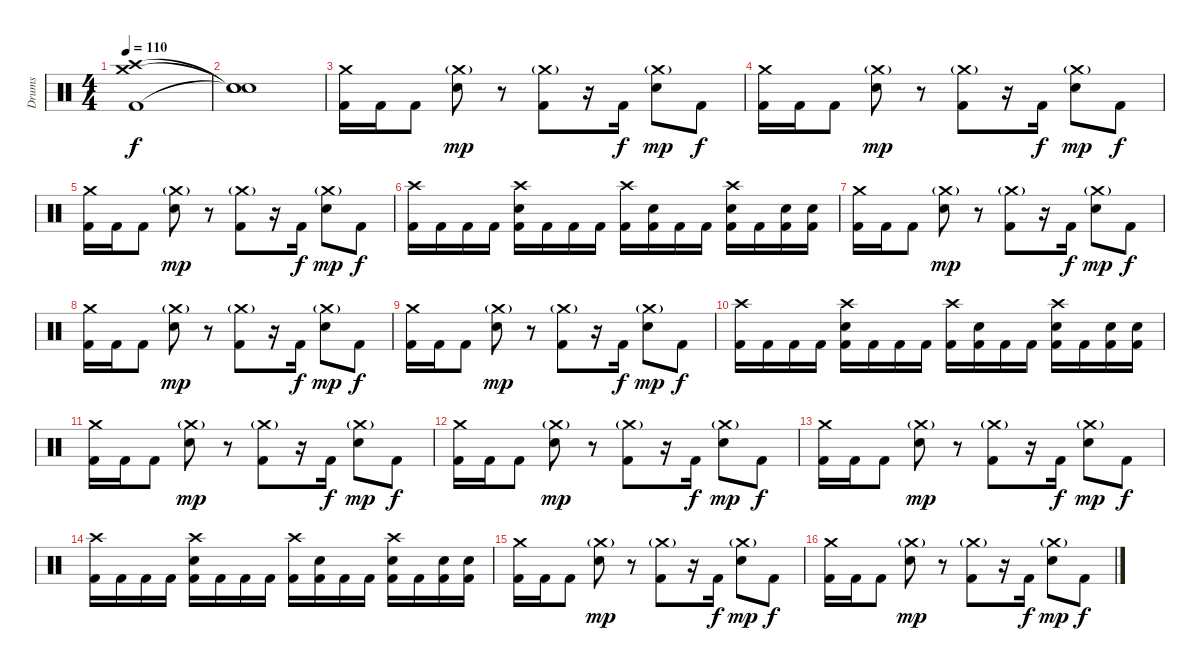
\track ("Drums" "Drums") {instrument percussion}
\staff {score}
\articulation defaults
\ts (4 4)
\tempo 110
\clef neutral
\ks c
("Crash high (hit)" "Crash medium (hit)" "Kick (hit) 2").1{dy f} |
("Snare (hit)"{t} "Snare (hit)"{t} "Snare (hit)"{t}).1 |
("Crash medium (hit)" "Kick (hit) 2").16 "Kick (hit) 2".16 "Kick (hit) 2".8 ("Crash medium (hit)"{g} "Electric Snare (hit)").8{dy mp} r.8 ("Crash medium (hit)"{g} "Kick (hit) 2").8 r.16 "Kick (hit) 2".16{dy f} ("Crash medium (hit)"{g} "Electric Snare (hit)").8{dy mp} "Kick (hit) 2".8{dy f} |
("Crash medium (hit)" "Kick (hit) 2").16 "Kick (hit) 2".16 "Kick (hit) 2".8 ("Crash medium (hit)"{g} "Electric Snare (hit)").8{dy mp} r.8 ("Crash medium (hit)"{g} "Kick (hit) 2").8 r.16 "Kick (hit) 2".16{dy f} ("Crash medium (hit)"{g} "Electric Snare (hit)").8{dy mp} "Kick (hit) 2".8{dy f} |
("Crash medium (hit)" "Kick (hit) 2").16 "Kick (hit) 2".16 "Kick (hit) 2".8 ("Crash medium (hit)"{g} "Electric Snare (hit)").8{dy mp} r.8 ("Crash medium (hit)"{g} "Kick (hit) 2").8 r.16 "Kick (hit) 2".16{dy f} ("Crash medium (hit)"{g} "Electric Snare (hit)").8{dy mp} "Kick (hit) 2".8{dy f} |
("Crash high (hit)" "Kick (hit) 2").16 "Kick (hit) 2".16 "Kick (hit) 2".16 "Kick (hit) 2".16 ("Crash high (hit)" "Electric Snare (hit)" "Kick (hit) 2").16 "Kick (hit) 2".16 "Kick (hit) 2".16 "Kick (hit) 2".16 ("Crash high (hit)" "Kick (hit) 2").16 ("Electric Snare (hit)" "Kick (hit) 2").16 "Kick (hit) 2".16 "Kick (hit) 2".16 ("Crash high (hit)" "Electric Snare (hit)" "Kick (hit) 2").16 "Kick (hit) 2".16 ("Electric Snare (hit)" "Kick (hit) 2").16 ("Electric Snare (hit)" "Kick (hit) 2").16 |
("Crash medium (hit)" "Kick (hit) 2").16 "Kick (hit) 2".16 "Kick (hit) 2".8 ("Crash medium (hit)"{g} "Electric Snare (hit)").8{dy mp} r.8 ("Crash medium (hit)"{g} "Kick (hit) 2").8 r.16 "Kick (hit) 2".16{dy f} ("Crash medium (hit)"{g} "Electric Snare (hit)").8{dy mp} "Kick (hit) 2".8{dy f} |
("Crash medium (hit)" "Kick (hit) 2").16 "Kick (hit) 2".16 "Kick (hit) 2".8 ("Crash medium (hit)"{g} "Electric Snare (hit)").8{dy mp} r.8 ("Crash medium (hit)"{g} "Kick (hit) 2").8 r.16 "Kick (hit) 2".16{dy f} ("Crash medium (hit)"{g} "Electric Snare (hit)").8{dy mp} "Kick (hit) 2".8{dy f} |
("Crash medium (hit)" "Kick (hit) 2").16 "Kick (hit) 2".16 "Kick (hit) 2".8 ("Crash medium (hit)"{g} "Electric Snare (hit)").8{dy mp} r.8 ("Crash medium (hit)"{g} "Kick (hit) 2").8 r.16 "Kick (hit) 2".16{dy f} ("Crash medium (hit)"{g} "Electric Snare (hit)").8{dy mp} "Kick (hit) 2".8{dy f} |
("Crash high (hit)" "Kick (hit) 2").16 "Kick (hit) 2".16 "Kick (hit) 2".16 "Kick (hit) 2".16 ("Crash high (hit)" "Electric Snare (hit)" "Kick (hit) 2").16 "Kick (hit) 2".16 "Kick (hit) 2".16 "Kick (hit) 2".16 ("Crash high (hit)" "Kick (hit) 2").16 ("Electric Snare (hit)" "Kick (hit) 2").16 "Kick (hit) 2".16 "Kick (hit) 2".16 ("Crash high (hit)" "Electric Snare (hit)" "Kick (hit) 2").16 "Kick (hit) 2".16 ("Electric Snare (hit)" "Kick (hit) 2").16 ("Electric Snare (hit)" "Kick (hit) 2").16 |
("Crash medium (hit)" "Kick (hit) 2").16 "Kick (hit) 2".16 "Kick (hit) 2".8 ("Crash medium (hit)"{g} "Electric Snare (hit)").8{dy mp} r.8 ("Crash medium (hit)"{g} "Kick (hit) 2").8 r.16 "Kick (hit) 2".16{dy f} ("Crash medium (hit)"{g} "Electric Snare (hit)").8{dy mp} "Kick (hit) 2".8{dy f} |
("Crash medium (hit)" "Kick (hit) 2").16 "Kick (hit) 2".16 "Kick (hit) 2".8 ("Crash medium (hit)"{g} "Electric Snare (hit)").8{dy mp} r.8 ("Crash medium (hit)"{g} "Kick (hit) 2").8 r.16 "Kick (hit) 2".16{dy f} ("Crash medium (hit)"{g} "Electric Snare (hit)").8{dy mp} "Kick (hit) 2".8{dy f} |
("Crash medium (hit)" "Kick (hit) 2").16 "Kick (hit) 2".16 "Kick (hit) 2".8 ("Crash medium (hit)"{g} "Electric Snare (hit)").8{dy mp} r.8 ("Crash medium (hit)"{g} "Kick (hit) 2").8 r.16 "Kick (hit) 2".16{dy f} ("Crash medium (hit)"{g} "Electric Snare (hit)").8{dy mp} "Kick (hit) 2".8{dy f} |
("Crash high (hit)" "Kick (hit) 2").16 "Kick (hit) 2".16 "Kick (hit) 2".16 "Kick (hit) 2".16 ("Crash high (hit)" "Electric Snare (hit)" "Kick (hit) 2").16 "Kick (hit) 2".16 "Kick (hit) 2".16 "Kick (hit) 2".16 ("Crash high (hit)" "Kick (hit) 2").16 ("Electric Snare (hit)" "Kick (hit) 2").16 "Kick (hit) 2".16 "Kick (hit) 2".16 ("Crash high (hit)" "Electric Snare (hit)" "Kick (hit) 2").16 "Kick (hit) 2".16 ("Electric Snare (hit)" "Kick (hit) 2").16 ("Electric Snare (hit)" "Kick (hit) 2").16 |
("Crash medium (hit)" "Kick (hit) 2").16 "Kick (hit) 2".16 "Kick (hit) 2".8 ("Crash medium (hit)"{g} "Electric Snare (hit)").8{dy mp} r.8 ("Crash medium (hit)"{g} "Kick (hit) 2").8 r.16 "Kick (hit) 2".16{dy f} ("Crash medium (hit)"{g} "Electric Snare (hit)").8{dy mp} "Kick (hit) 2".8{dy f} |
("Crash medium (hit)" "Kick (hit) 2").16 "Kick (hit) 2".16 "Kick (hit) 2".8 ("Crash medium (hit)"{g} "Electric Snare (hit)").8{dy mp} r.8 ("Crash medium (hit)"{g} "Kick (hit) 2").8 r.16 "Kick (hit) 2".16{dy f} ("Crash medium (hit)"{g} "Electric Snare (hit)").8{dy mp} "Kick (hit) 2".8{dy f}
